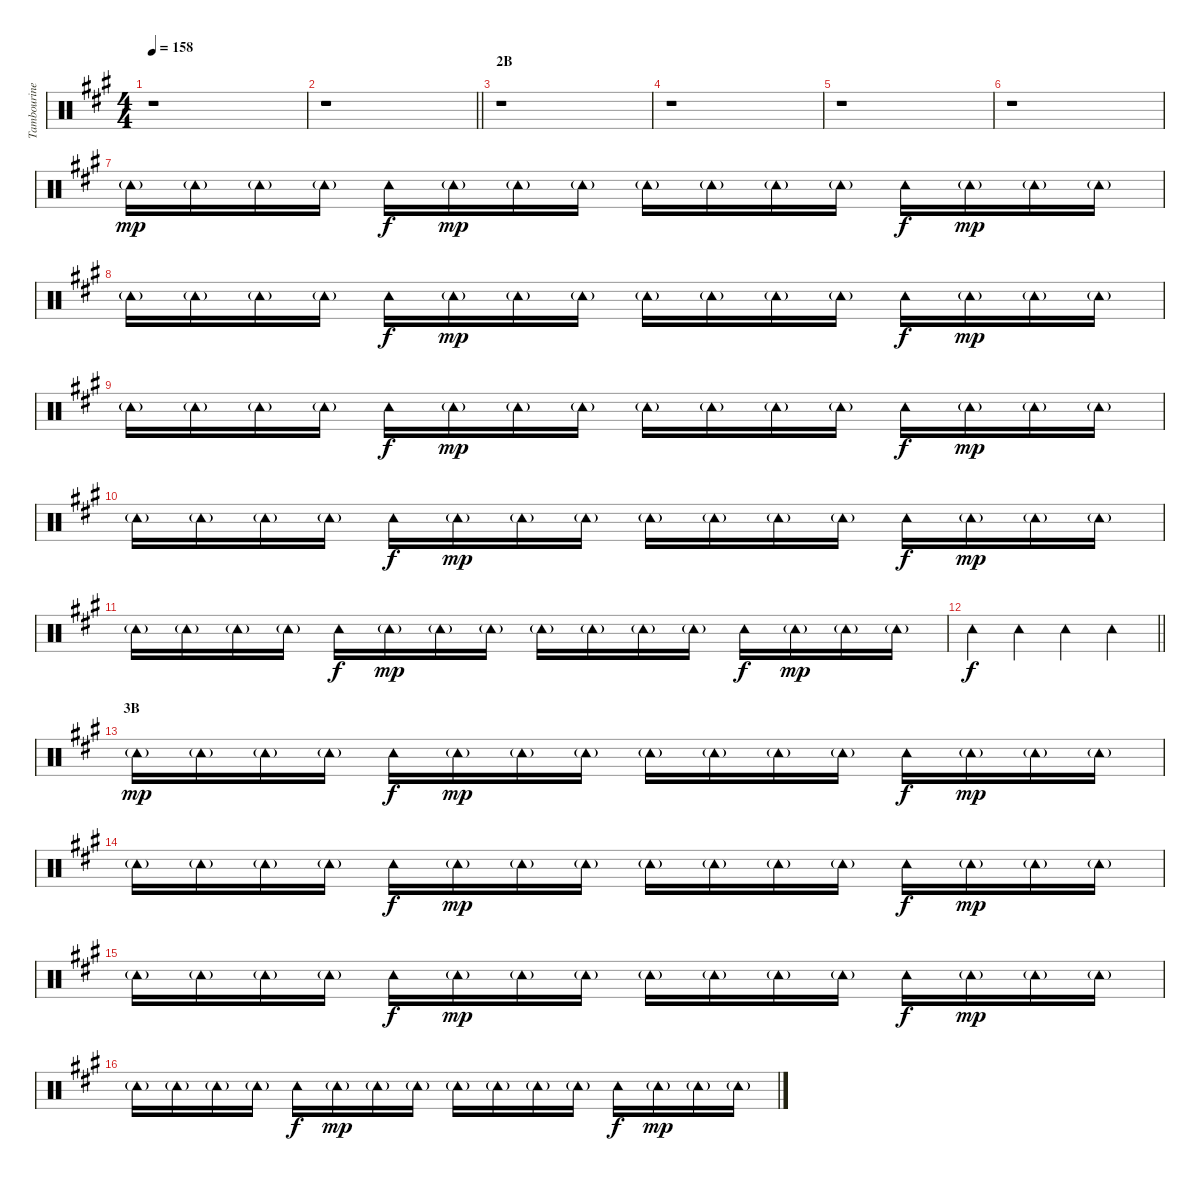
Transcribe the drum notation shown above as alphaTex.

\track ("Tambourine" "Tambourine") {instrument percussion}
\staff {score}
\articulation defaults
\ts (4 4)
\tempo 158
\clef neutral
\ks a
r.1{dy mp} |
\barLineRight lightlight
r.1 |
\section ("" "2B")
r.1 |
r.1 |
r.1 |
r.1 |
"Tambourine (hit)"{g}.16 "Tambourine (hit)"{g}.16 "Tambourine (hit)"{g}.16 "Tambourine (hit)"{g}.16 "Tambourine (hit)".16{dy f} "Tambourine (hit)"{g}.16{dy mp} "Tambourine (hit)"{g}.16 "Tambourine (hit)"{g}.16 "Tambourine (hit)"{g}.16 "Tambourine (hit)"{g}.16 "Tambourine (hit)"{g}.16 "Tambourine (hit)"{g}.16 "Tambourine (hit)".16{dy f} "Tambourine (hit)"{g}.16{dy mp} "Tambourine (hit)"{g}.16 "Tambourine (hit)"{g}.16 |
"Tambourine (hit)"{g}.16 "Tambourine (hit)"{g}.16 "Tambourine (hit)"{g}.16 "Tambourine (hit)"{g}.16 "Tambourine (hit)".16{dy f} "Tambourine (hit)"{g}.16{dy mp} "Tambourine (hit)"{g}.16 "Tambourine (hit)"{g}.16 "Tambourine (hit)"{g}.16 "Tambourine (hit)"{g}.16 "Tambourine (hit)"{g}.16 "Tambourine (hit)"{g}.16 "Tambourine (hit)".16{dy f} "Tambourine (hit)"{g}.16{dy mp} "Tambourine (hit)"{g}.16 "Tambourine (hit)"{g}.16 |
"Tambourine (hit)"{g}.16 "Tambourine (hit)"{g}.16 "Tambourine (hit)"{g}.16 "Tambourine (hit)"{g}.16 "Tambourine (hit)".16{dy f} "Tambourine (hit)"{g}.16{dy mp} "Tambourine (hit)"{g}.16 "Tambourine (hit)"{g}.16 "Tambourine (hit)"{g}.16 "Tambourine (hit)"{g}.16 "Tambourine (hit)"{g}.16 "Tambourine (hit)"{g}.16 "Tambourine (hit)".16{dy f} "Tambourine (hit)"{g}.16{dy mp} "Tambourine (hit)"{g}.16 "Tambourine (hit)"{g}.16 |
"Tambourine (hit)"{g}.16 "Tambourine (hit)"{g}.16 "Tambourine (hit)"{g}.16 "Tambourine (hit)"{g}.16 "Tambourine (hit)".16{dy f} "Tambourine (hit)"{g}.16{dy mp} "Tambourine (hit)"{g}.16 "Tambourine (hit)"{g}.16 "Tambourine (hit)"{g}.16 "Tambourine (hit)"{g}.16 "Tambourine (hit)"{g}.16 "Tambourine (hit)"{g}.16 "Tambourine (hit)".16{dy f} "Tambourine (hit)"{g}.16{dy mp} "Tambourine (hit)"{g}.16 "Tambourine (hit)"{g}.16 |
"Tambourine (hit)"{g}.16 "Tambourine (hit)"{g}.16 "Tambourine (hit)"{g}.16 "Tambourine (hit)"{g}.16 "Tambourine (hit)".16{dy f} "Tambourine (hit)"{g}.16{dy mp} "Tambourine (hit)"{g}.16 "Tambourine (hit)"{g}.16 "Tambourine (hit)"{g}.16 "Tambourine (hit)"{g}.16 "Tambourine (hit)"{g}.16 "Tambourine (hit)"{g}.16 "Tambourine (hit)".16{dy f} "Tambourine (hit)"{g}.16{dy mp} "Tambourine (hit)"{g}.16 "Tambourine (hit)"{g}.16 |
\barLineRight lightlight "Tambourine (hit)".4{dy f} "Tambourine (hit)".4 "Tambourine (hit)".4 "Tambourine (hit)".4
|
\section ("" "3B")
"Tambourine (hit)"{g}.16{dy mp} "Tambourine (hit)"{g}.16 "Tambourine (hit)"{g}.16 "Tambourine (hit)"{g}.16 "Tambourine (hit)".16{dy f} "Tambourine (hit)"{g}.16{dy mp} "Tambourine (hit)"{g}.16 "Tambourine (hit)"{g}.16 "Tambourine (hit)"{g}.16 "Tambourine (hit)"{g}.16 "Tambourine (hit)"{g}.16 "Tambourine (hit)"{g}.16 "Tambourine (hit)".16{dy f} "Tambourine (hit)"{g}.16{dy mp} "Tambourine (hit)"{g}.16 "Tambourine (hit)"{g}.16 |
"Tambourine (hit)"{g}.16 "Tambourine (hit)"{g}.16 "Tambourine (hit)"{g}.16 "Tambourine (hit)"{g}.16 "Tambourine (hit)".16{dy f} "Tambourine (hit)"{g}.16{dy mp} "Tambourine (hit)"{g}.16 "Tambourine (hit)"{g}.16 "Tambourine (hit)"{g}.16 "Tambourine (hit)"{g}.16 "Tambourine (hit)"{g}.16 "Tambourine (hit)"{g}.16 "Tambourine (hit)".16{dy f} "Tambourine (hit)"{g}.16{dy mp} "Tambourine (hit)"{g}.16 "Tambourine (hit)"{g}.16 |
"Tambourine (hit)"{g}.16 "Tambourine (hit)"{g}.16 "Tambourine (hit)"{g}.16 "Tambourine (hit)"{g}.16 "Tambourine (hit)".16{dy f} "Tambourine (hit)"{g}.16{dy mp} "Tambourine (hit)"{g}.16 "Tambourine (hit)"{g}.16 "Tambourine (hit)"{g}.16 "Tambourine (hit)"{g}.16 "Tambourine (hit)"{g}.16 "Tambourine (hit)"{g}.16 "Tambourine (hit)".16{dy f} "Tambourine (hit)"{g}.16{dy mp} "Tambourine (hit)"{g}.16 "Tambourine (hit)"{g}.16 |
"Tambourine (hit)"{g}.16 "Tambourine (hit)"{g}.16 "Tambourine (hit)"{g}.16 "Tambourine (hit)"{g}.16 "Tambourine (hit)".16{dy f} "Tambourine (hit)"{g}.16{dy mp} "Tambourine (hit)"{g}.16 "Tambourine (hit)"{g}.16 "Tambourine (hit)"{g}.16 "Tambourine (hit)"{g}.16 "Tambourine (hit)"{g}.16 "Tambourine (hit)"{g}.16 "Tambourine (hit)".16{dy f} "Tambourine (hit)"{g}.16{dy mp} "Tambourine (hit)"{g}.16 "Tambourine (hit)"{g}.16
